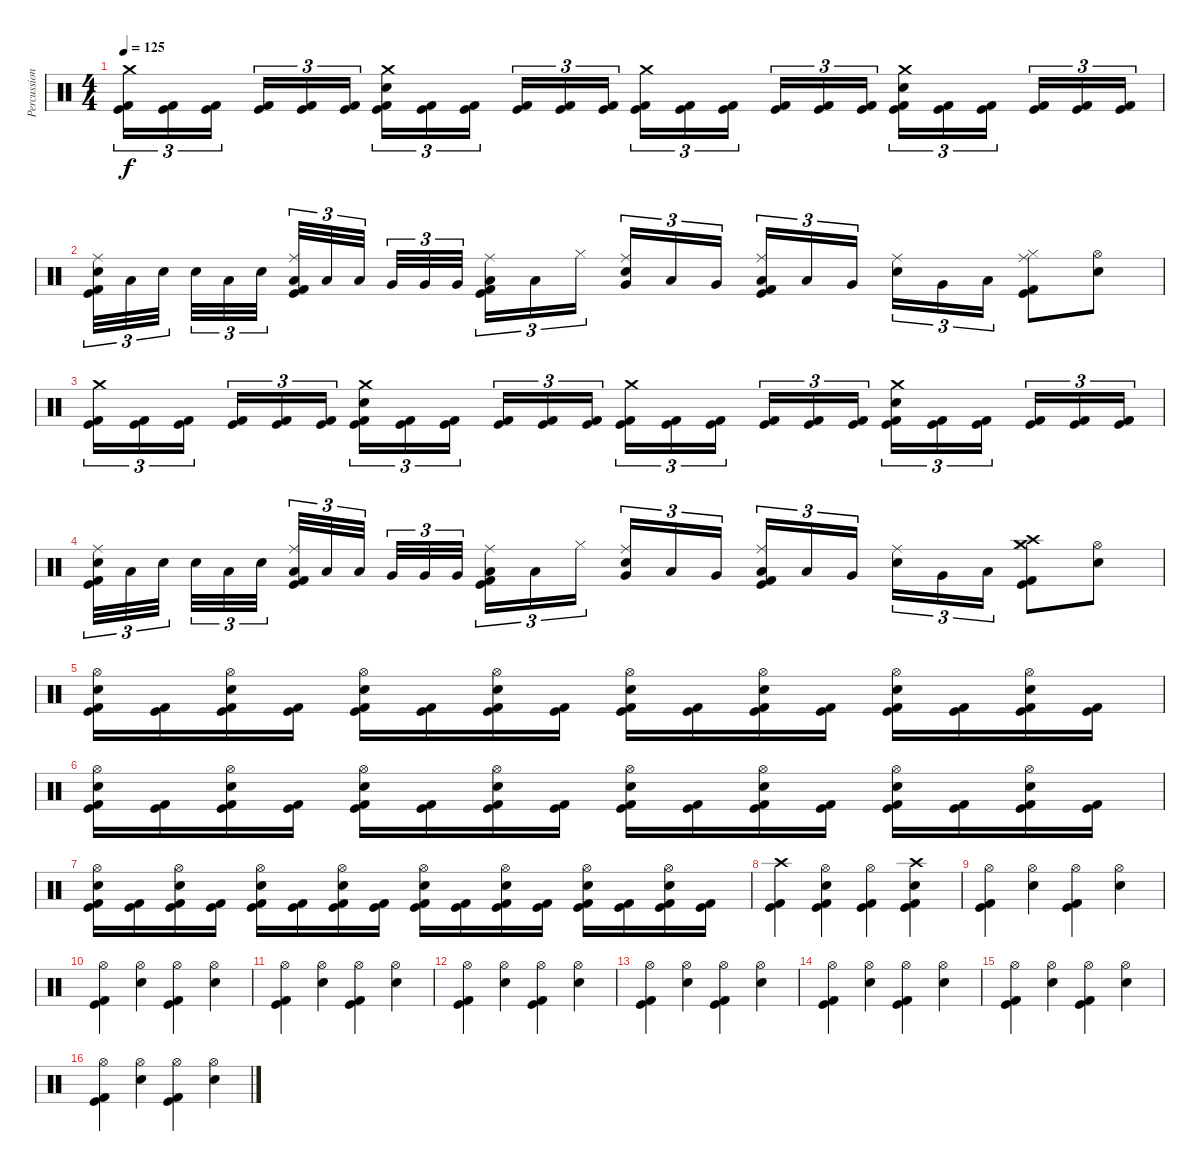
\track ("Percussion" "Percussion") {instrument percussion}
\staff {score}
\articulation defaults
\ts (4 4)
\tempo 125
\clef neutral
\ks c
("Crash medium (hit)" "Kick (hit)" "Kick (hit) 2").16{tu (3 2) dy f} ("Kick (hit)" "Kick (hit) 2").16{tu (3 2)} ("Kick (hit)" "Kick (hit) 2").16{tu (3 2) beam splitsecondary} ("Kick (hit)" "Kick (hit) 2").16{tu (3 2)} ("Kick (hit)" "Kick (hit) 2").16{tu (3 2)} ("Kick (hit)" "Kick (hit) 2").16{tu (3 2)} ("Crash medium (hit)" "Electric Snare (hit)" "Kick (hit)" "Kick (hit) 2").16{tu (3 2)} ("Kick (hit)" "Kick (hit) 2").16{tu (3 2)} ("Kick (hit)" "Kick (hit) 2").16{tu (3 2) beam splitsecondary} ("Kick (hit)" "Kick (hit) 2").16{tu (3 2)} ("Kick (hit)" "Kick (hit) 2").16{tu (3 2)} ("Kick (hit)" "Kick (hit) 2").16{tu (3 2)} ("Crash medium (hit)" "Kick (hit)" "Kick (hit) 2").16{tu (3 2)} ("Kick (hit)" "Kick (hit) 2").16{tu (3 2)} ("Kick (hit)" "Kick (hit) 2").16{tu (3 2) beam splitsecondary} ("Kick (hit)" "Kick (hit) 2").16{tu (3 2)} ("Kick (hit)" "Kick (hit) 2").16{tu (3 2)} ("Kick (hit)" "Kick (hit) 2").16{tu (3 2)} ("Crash medium (hit)" "Electric Snare (hit)" "Kick (hit)" "Kick (hit) 2").16{tu (3 2)} ("Kick (hit)" "Kick (hit) 2").16{tu (3 2)} ("Kick (hit)" "Kick (hit) 2").16{tu (3 2) beam splitsecondary} ("Kick (hit)" "Kick (hit) 2").16{tu (3 2)} ("Kick (hit)" "Kick (hit) 2").16{tu (3 2)} ("Kick (hit)" "Kick (hit) 2").16{tu (3 2)} |
("Electric Snare (hit)" "Kick (hit) 2" "Kick (hit)" "Ride (middle)").32{tu (3 2)} "Low Tom (hit)".32{tu (3 2)} "Electric Snare (hit)".32{tu (3 2) beam splitsecondary} "Electric Snare (hit)".32{tu (3 2)} "Low Tom (hit)".32{tu (3 2)} "Electric Snare (hit)".32{tu (3 2) beam splitsecondary} ("Low Tom (hit)" "Kick (hit) 2" "Kick (hit)" "Ride (middle)").32{tu (3 2)} "Low Tom (hit)".32{tu (3 2)} "Low Tom (hit)".32{tu (3 2) beam splitsecondary} "Very Low Tom (hit)".32{tu (3 2)} "Very Low Tom (hit)".32{tu (3 2)} "Very Low Tom (hit)".32{tu (3 2)} ("Low Floor Tom (hit)" "Kick (hit) 2" "Kick (hit)" "Ride (middle)").16{tu (3 2)} "Low Floor Tom (hit)".16{tu (3 2)} "Hi-Hat (closed)".16{tu (3 2) beam splitsecondary} ("Very Low Tom (hit)" "Electric Snare (hit)" "Ride (middle)").16{tu (3 2)} "Low Tom (hit)".16{tu (3 2)} "Very Low Tom (hit)".16{tu (3 2)} ("Low Floor Tom (hit)" "Kick (hit) 2" "Kick (hit)" "Ride (middle)").16{tu (3 2)} "Low Tom (hit)".16{tu (3 2)} "Very Low Tom (hit)".16{tu (3 2) beam splitsecondary} ("Electric Snare (hit)" "Ride (middle)").16{tu (3 2)} "Very Low Tom (hit)".16{tu (3 2)} "Low Tom (hit)".16{tu (3 2)} ("Hi-Hat (closed)" "Kick (hit) 2" "Kick (hit)" "Ride (middle)").8 ("Hi-Hat (open)" "Electric Snare (hit)").8 |
("Crash medium (hit)" "Kick (hit)" "Kick (hit) 2").16{tu (3 2)} ("Kick (hit)" "Kick (hit) 2").16{tu (3 2)} ("Kick (hit)" "Kick (hit) 2").16{tu (3 2) beam splitsecondary} ("Kick (hit)" "Kick (hit) 2").16{tu (3 2)} ("Kick (hit)" "Kick (hit) 2").16{tu (3 2)} ("Kick (hit)" "Kick (hit) 2").16{tu (3 2)} ("Crash medium (hit)" "Electric Snare (hit)" "Kick (hit)" "Kick (hit) 2").16{tu (3 2)} ("Kick (hit)" "Kick (hit) 2").16{tu (3 2)} ("Kick (hit)" "Kick (hit) 2").16{tu (3 2) beam splitsecondary} ("Kick (hit)" "Kick (hit) 2").16{tu (3 2)} ("Kick (hit)" "Kick (hit) 2").16{tu (3 2)} ("Kick (hit)" "Kick (hit) 2").16{tu (3 2)} ("Crash medium (hit)" "Kick (hit)" "Kick (hit) 2").16{tu (3 2)} ("Kick (hit)" "Kick (hit) 2").16{tu (3 2)} ("Kick (hit)" "Kick (hit) 2").16{tu (3 2) beam splitsecondary} ("Kick (hit)" "Kick (hit) 2").16{tu (3 2)} ("Kick (hit)" "Kick (hit) 2").16{tu (3 2)} ("Kick (hit)" "Kick (hit) 2").16{tu (3 2)} ("Crash medium (hit)" "Electric Snare (hit)" "Kick (hit)" "Kick (hit) 2").16{tu (3 2)} ("Kick (hit)" "Kick (hit) 2").16{tu (3 2)} ("Kick (hit)" "Kick (hit) 2").16{tu (3 2) beam splitsecondary} ("Kick (hit)" "Kick (hit) 2").16{tu (3 2)} ("Kick (hit)" "Kick (hit) 2").16{tu (3 2)} ("Kick (hit)" "Kick (hit) 2").16{tu (3 2)} |
("Electric Snare (hit)" "Kick (hit) 2" "Kick (hit)" "Ride (middle)").32{tu (3 2)} "Low Tom (hit)".32{tu (3 2)} "Electric Snare (hit)".32{tu (3 2) beam splitsecondary} "Electric Snare (hit)".32{tu (3 2)} "Low Tom (hit)".32{tu (3 2)} "Electric Snare (hit)".32{tu (3 2) beam splitsecondary} ("Low Tom (hit)" "Kick (hit) 2" "Kick (hit)" "Ride (middle)").32{tu (3 2)} "Low Tom (hit)".32{tu (3 2)} "Low Tom (hit)".32{tu (3 2) beam splitsecondary} "Very Low Tom (hit)".32{tu (3 2)} "Very Low Tom (hit)".32{tu (3 2)} "Very Low Tom (hit)".32{tu (3 2)} ("Low Floor Tom (hit)" "Kick (hit) 2" "Kick (hit)" "Ride (middle)").16{tu (3 2)} "Low Floor Tom (hit)".16{tu (3 2)} "Hi-Hat (closed)".16{tu (3 2) beam splitsecondary} ("Very Low Tom (hit)" "Electric Snare (hit)" "Ride (middle)").16{tu (3 2)} "Low Tom (hit)".16{tu (3 2)} "Very Low Tom (hit)".16{tu (3 2)} ("Low Floor Tom (hit)" "Kick (hit) 2" "Kick (hit)" "Ride (middle)").16{tu (3 2)} "Low Tom (hit)".16{tu (3 2)} "Very Low Tom (hit)".16{tu (3 2) beam splitsecondary} ("Electric Snare (hit)" "Ride (middle)").16{tu (3 2)} "Very Low Tom (hit)".16{tu (3 2)} "Low Tom (hit)".16{tu (3 2)} ("Crash medium (hit)" "Hi-Hat (closed)" "Kick (hit) 2" "Kick (hit)" "Crash high (hit)").8 ("Hi-Hat (open)" "Electric Snare (hit)").8 |
("Hi-Hat (open)" "Electric Snare (hit)" "Kick (hit)" "Kick (hit) 2").16 ("Kick (hit)" "Kick (hit) 2").16 ("Hi-Hat (open)" "Electric Snare (hit)" "Kick (hit)" "Kick (hit) 2").16 ("Kick (hit)" "Kick (hit) 2").16 ("Hi-Hat (open)" "Electric Snare (hit)" "Kick (hit)" "Kick (hit) 2").16 ("Kick (hit)" "Kick (hit) 2").16 ("Hi-Hat (open)" "Electric Snare (hit)" "Kick (hit)" "Kick (hit) 2").16 ("Kick (hit)" "Kick (hit) 2").16 ("Hi-Hat (open)" "Electric Snare (hit)" "Kick (hit)" "Kick (hit) 2").16 ("Kick (hit)" "Kick (hit) 2").16 ("Hi-Hat (open)" "Electric Snare (hit)" "Kick (hit)" "Kick (hit) 2").16 ("Kick (hit)" "Kick (hit) 2").16 ("Hi-Hat (open)" "Electric Snare (hit)" "Kick (hit)" "Kick (hit) 2").16 ("Kick (hit)" "Kick (hit) 2").16 ("Hi-Hat (open)" "Electric Snare (hit)" "Kick (hit)" "Kick (hit) 2").16 ("Kick (hit)" "Kick (hit) 2").16 |
("Hi-Hat (open)" "Electric Snare (hit)" "Kick (hit)" "Kick (hit) 2").16 ("Kick (hit)" "Kick (hit) 2").16 ("Hi-Hat (open)" "Electric Snare (hit)" "Kick (hit)" "Kick (hit) 2").16 ("Kick (hit)" "Kick (hit) 2").16 ("Hi-Hat (open)" "Electric Snare (hit)" "Kick (hit)" "Kick (hit) 2").16 ("Kick (hit)" "Kick (hit) 2").16 ("Hi-Hat (open)" "Electric Snare (hit)" "Kick (hit)" "Kick (hit) 2").16 ("Kick (hit)" "Kick (hit) 2").16 ("Hi-Hat (open)" "Electric Snare (hit)" "Kick (hit)" "Kick (hit) 2").16 ("Kick (hit)" "Kick (hit) 2").16 ("Hi-Hat (open)" "Electric Snare (hit)" "Kick (hit)" "Kick (hit) 2").16 ("Kick (hit)" "Kick (hit) 2").16 ("Hi-Hat (open)" "Electric Snare (hit)" "Kick (hit)" "Kick (hit) 2").16 ("Kick (hit)" "Kick (hit) 2").16 ("Hi-Hat (open)" "Electric Snare (hit)" "Kick (hit)" "Kick (hit) 2").16 ("Kick (hit)" "Kick (hit) 2").16 |
("Hi-Hat (open)" "Electric Snare (hit)" "Kick (hit)" "Kick (hit) 2").16 ("Kick (hit)" "Kick (hit) 2").16 ("Hi-Hat (open)" "Electric Snare (hit)" "Kick (hit)" "Kick (hit) 2").16 ("Kick (hit)" "Kick (hit) 2").16 ("Hi-Hat (open)" "Electric Snare (hit)" "Kick (hit)" "Kick (hit) 2").16 ("Kick (hit)" "Kick (hit) 2").16 ("Hi-Hat (open)" "Electric Snare (hit)" "Kick (hit)" "Kick (hit) 2").16 ("Kick (hit)" "Kick (hit) 2").16 ("Hi-Hat (open)" "Electric Snare (hit)" "Kick (hit)" "Kick (hit) 2").16 ("Kick (hit)" "Kick (hit) 2").16 ("Hi-Hat (open)" "Electric Snare (hit)" "Kick (hit)" "Kick (hit) 2").16 ("Kick (hit)" "Kick (hit) 2").16 ("Hi-Hat (open)" "Electric Snare (hit)" "Kick (hit)" "Kick (hit) 2").16 ("Kick (hit)" "Kick (hit) 2").16 ("Hi-Hat (open)" "Electric Snare (hit)" "Kick (hit)" "Kick (hit) 2").16 ("Kick (hit)" "Kick (hit) 2").16 |
("Crash high (hit)" "Kick (hit) 2" "Kick (hit)").4 ("Hi-Hat (open)" "Electric Snare (hit)" "Kick (hit) 2" "Kick (hit)").4 ("Hi-Hat (open)" "Kick (hit) 2" "Kick (hit)").4 ("Crash high (hit)" "Electric Snare (hit)" "Kick (hit) 2" "Kick (hit)").4 |
("Hi-Hat (open)" "Kick (hit) 2" "Kick (hit)").4 ("Electric Snare (hit)" "Hi-Hat (open)").4 ("Hi-Hat (open)" "Kick (hit) 2" "Kick (hit)").4 ("Electric Snare (hit)" "Hi-Hat (open)").4 |
("Hi-Hat (open)" "Kick (hit) 2" "Kick (hit)").4 ("Electric Snare (hit)" "Hi-Hat (open)").4 ("Hi-Hat (open)" "Kick (hit) 2" "Kick (hit)").4 ("Electric Snare (hit)" "Hi-Hat (open)").4 |
("Hi-Hat (open)" "Kick (hit) 2" "Kick (hit)").4 ("Electric Snare (hit)" "Hi-Hat (open)").4 ("Hi-Hat (open)" "Kick (hit) 2" "Kick (hit)").4 ("Electric Snare (hit)" "Hi-Hat (open)").4 |
("Hi-Hat (open)" "Kick (hit) 2" "Kick (hit)").4 ("Electric Snare (hit)" "Hi-Hat (open)").4 ("Hi-Hat (open)" "Kick (hit) 2" "Kick (hit)").4 ("Electric Snare (hit)" "Hi-Hat (open)").4 |
("Hi-Hat (open)" "Kick (hit) 2" "Kick (hit)").4 ("Electric Snare (hit)" "Hi-Hat (open)").4 ("Hi-Hat (open)" "Kick (hit) 2" "Kick (hit)").4 ("Electric Snare (hit)" "Hi-Hat (open)").4 |
("Hi-Hat (open)" "Kick (hit) 2" "Kick (hit)").4 ("Electric Snare (hit)" "Hi-Hat (open)").4 ("Hi-Hat (open)" "Kick (hit) 2" "Kick (hit)").4 ("Electric Snare (hit)" "Hi-Hat (open)").4 |
("Hi-Hat (open)" "Kick (hit) 2" "Kick (hit)").4 ("Electric Snare (hit)" "Hi-Hat (open)").4 ("Hi-Hat (open)" "Kick (hit) 2" "Kick (hit)").4 ("Electric Snare (hit)" "Hi-Hat (open)").4 |
("Hi-Hat (open)" "Kick (hit) 2" "Kick (hit)").4 ("Electric Snare (hit)" "Hi-Hat (open)").4 ("Hi-Hat (open)" "Kick (hit) 2" "Kick (hit)").4 ("Electric Snare (hit)" "Hi-Hat (open)").4
